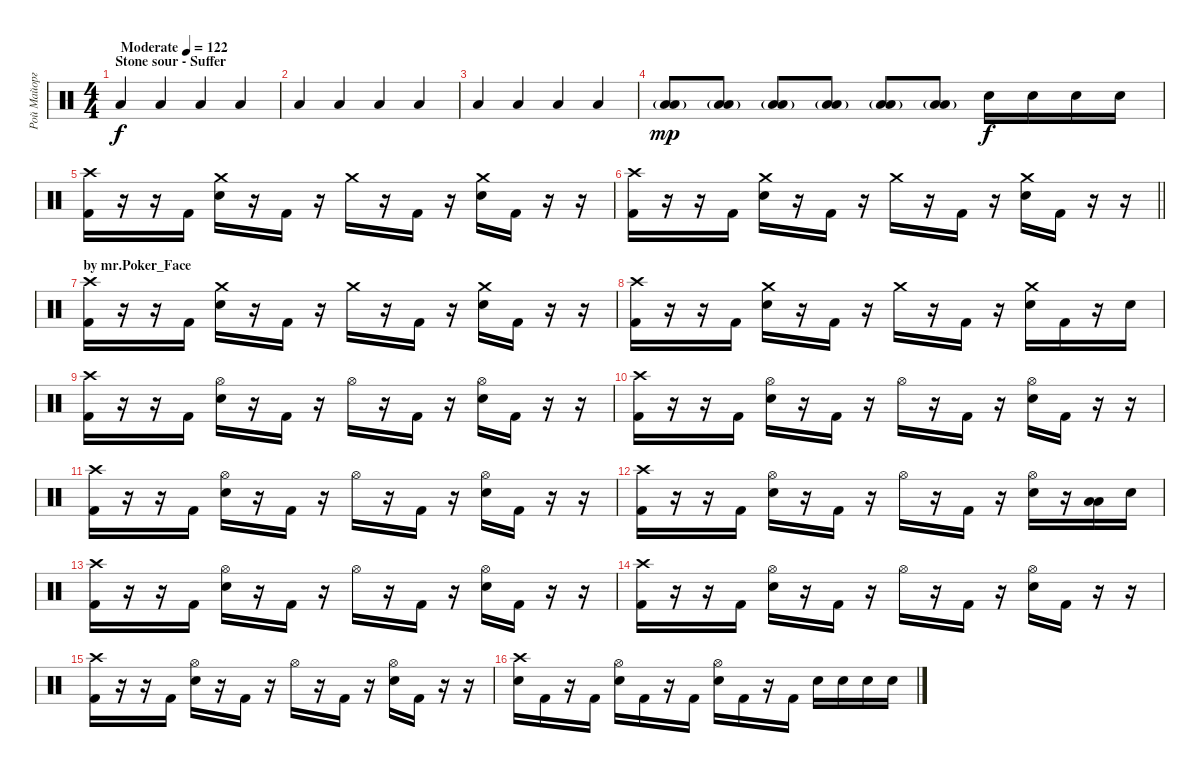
\track ("Рой Майорга" "Рой Майорг") {instrument percussion}
\staff {score}
\articulation defaults
\ts (4 4)
\section ("" "Stone sour - Suffer")
\tempo (122 "Moderate")
\clef neutral
\ks c "Low Tom (hit)".4{dy f} "Low Tom (hit)".4 "Low Tom (hit)".4 "Low Tom (hit)".4
|
"Low Tom (hit)".4 "Low Tom (hit)".4 "Low Tom (hit)".4 "Low Tom (hit)".4 |
"Low Tom (hit)".4 "Low Tom (hit)".4 "Low Tom (hit)".4 "Low Tom (hit)".4 |
("Low Tom (hit)"{g} "Low Tom (hit)").8{dy mp} ("Low Tom (hit)"{g} "Low Tom (hit)").8 ("Low Tom (hit)"{g} "Low Tom (hit)").8 ("Low Tom (hit)"{g} "Low Tom (hit)").8 ("Low Tom (hit)"{g} "Low Tom (hit)").8 ("Low Tom (hit)"{g} "Low Tom (hit)").8 "Electric Snare (hit)".16{dy f} "Electric Snare (hit)".16 "Electric Snare (hit)".16 "Electric Snare (hit)".16 |
("Crash high (hit)" "Kick (hit) 2").16 r.16 r.16 "Kick (hit) 2".16 ("Crash medium (hit)" "Electric Snare (hit)").16 r.16 "Kick (hit) 2".16 r.16 "Crash medium (hit)".16 r.16 "Kick (hit) 2".16 r.16 ("Crash medium (hit)" "Electric Snare (hit)").16 "Kick (hit) 2".16 r.16 r.16 |
\barLineRight lightlight
("Crash high (hit)" "Kick (hit) 2").16 r.16 r.16 "Kick (hit) 2".16 ("Crash medium (hit)" "Electric Snare (hit)").16 r.16 "Kick (hit) 2".16 r.16 "Crash medium (hit)".16 r.16 "Kick (hit) 2".16 r.16 ("Crash medium (hit)" "Electric Snare (hit)").16 "Kick (hit) 2".16 r.16 r.16 |
\section ("" "by mr.Poker_Face")
("Crash high (hit)" "Kick (hit) 2").16 r.16 r.16 "Kick (hit) 2".16 ("Crash medium (hit)" "Electric Snare (hit)").16 r.16 "Kick (hit) 2".16 r.16 "Crash medium (hit)".16 r.16 "Kick (hit) 2".16 r.16 ("Crash medium (hit)" "Electric Snare (hit)").16 "Kick (hit) 2".16 r.16 r.16 |
("Crash high (hit)" "Kick (hit) 2").16 r.16 r.16 "Kick (hit) 2".16 ("Crash medium (hit)" "Electric Snare (hit)").16 r.16 "Kick (hit) 2".16 r.16 "Crash medium (hit)".16 r.16 "Kick (hit) 2".16 r.16 ("Crash medium (hit)" "Electric Snare (hit)").16 "Kick (hit) 2".16 r.16 "Electric Snare (hit)".16 |
("Crash high (hit)" "Kick (hit) 2").16 r.16 r.16 "Kick (hit) 2".16 ("Hi-Hat (open)" "Electric Snare (hit)").16 r.16 "Kick (hit) 2".16 r.16 "Hi-Hat (open)".16 r.16 "Kick (hit) 2".16 r.16 ("Hi-Hat (open)" "Electric Snare (hit)").16 "Kick (hit) 2".16 r.16 r.16 |
("Crash high (hit)" "Kick (hit) 2").16 r.16 r.16 "Kick (hit) 2".16 ("Hi-Hat (open)" "Electric Snare (hit)").16 r.16 "Kick (hit) 2".16 r.16 "Hi-Hat (open)".16 r.16 "Kick (hit) 2".16 r.16 ("Hi-Hat (open)" "Electric Snare (hit)").16 "Kick (hit) 2".16 r.16 r.16 |
("Crash high (hit)" "Kick (hit) 2").16 r.16 r.16 "Kick (hit) 2".16 ("Hi-Hat (open)" "Electric Snare (hit)").16 r.16 "Kick (hit) 2".16 r.16 "Hi-Hat (open)".16 r.16 "Kick (hit) 2".16 r.16 ("Hi-Hat (open)" "Electric Snare (hit)").16 "Kick (hit) 2".16 r.16 r.16 |
("Crash high (hit)" "Kick (hit) 2").16 r.16 r.16 "Kick (hit) 2".16 ("Hi-Hat (open)" "Electric Snare (hit)").16 r.16 "Kick (hit) 2".16 r.16 "Hi-Hat (open)".16 r.16 "Kick (hit) 2".16 r.16 ("Hi-Hat (open)" "Electric Snare (hit)").16 r.16 ("Low Tom (hit)" "Low Tom (hit)").16 "Electric Snare (hit)".16 |
("Crash high (hit)" "Kick (hit) 2").16 r.16 r.16 "Kick (hit) 2".16 ("Hi-Hat (open)" "Electric Snare (hit)").16 r.16 "Kick (hit) 2".16 r.16 "Hi-Hat (open)".16 r.16 "Kick (hit) 2".16 r.16 ("Hi-Hat (open)" "Electric Snare (hit)").16 "Kick (hit) 2".16 r.16 r.16 |
("Crash high (hit)" "Kick (hit) 2").16 r.16 r.16 "Kick (hit) 2".16 ("Hi-Hat (open)" "Electric Snare (hit)").16 r.16 "Kick (hit) 2".16 r.16 "Hi-Hat (open)".16 r.16 "Kick (hit) 2".16 r.16 ("Hi-Hat (open)" "Electric Snare (hit)").16 "Kick (hit) 2".16 r.16 r.16 |
("Crash high (hit)" "Kick (hit) 2").16 r.16 r.16 "Kick (hit) 2".16 ("Hi-Hat (open)" "Electric Snare (hit)").16 r.16 "Kick (hit) 2".16 r.16 "Hi-Hat (open)".16 r.16 "Kick (hit) 2".16 r.16 ("Hi-Hat (open)" "Electric Snare (hit)").16 "Kick (hit) 2".16 r.16 r.16 |
("Crash high (hit)" "Electric Snare (hit)").16 "Kick (hit) 2".16 r.16 "Kick (hit) 2".16 ("Hi-Hat (open)" "Electric Snare (hit)").16 "Kick (hit) 2".16 r.16 "Kick (hit) 2".16 ("Hi-Hat (open)" "Electric Snare (hit)").16 "Kick (hit) 2".16 r.16 "Kick (hit) 2".16 "Electric Snare (hit)".16 "Electric Snare (hit)".16 "Electric Snare (hit)".16 "Electric Snare (hit)".16
